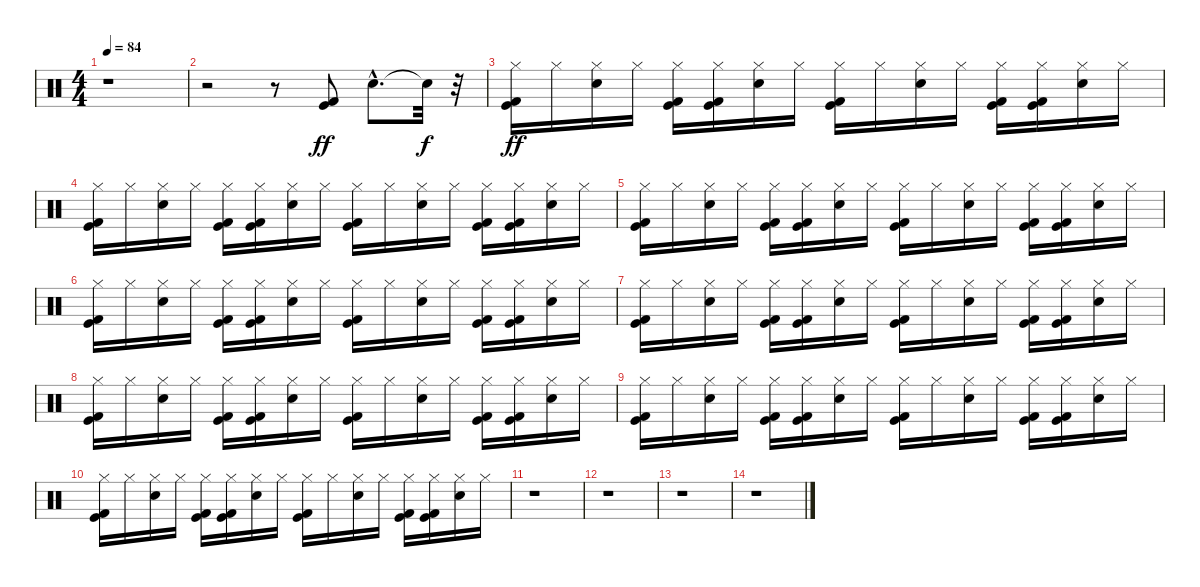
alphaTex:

\track "" {instrument percussion}
\staff {score}
\articulation defaults
\ts (4 4)
\tempo 84
\clef neutral
\ks c
r.1{dy ff} |
r.2 r.8 ("Kick (hit)" "Kick (hit) 2").8 "Snare (hit) 2"{hac}.8{d} "Snare (hit)"{t}.32{dy f} r.32 |
("Kick (hit)" "Kick (hit) 2" "Hi-Hat (closed)").16{dy ff} "Hi-Hat (closed)".16 ("Snare (hit) 2" "Hi-Hat (closed)").16 "Hi-Hat (closed)".16 ("Kick (hit)" "Kick (hit) 2" "Hi-Hat (closed)").16 ("Kick (hit)" "Kick (hit) 2" "Hi-Hat (closed)").16 ("Snare (hit) 2" "Hi-Hat (closed)").16 "Hi-Hat (closed)".16 ("Kick (hit)" "Kick (hit) 2" "Hi-Hat (closed)").16 "Hi-Hat (closed)".16 ("Snare (hit) 2" "Hi-Hat (closed)").16 "Hi-Hat (closed)".16 ("Kick (hit)" "Kick (hit) 2" "Hi-Hat (closed)").16 ("Kick (hit)" "Kick (hit) 2" "Hi-Hat (closed)").16 ("Snare (hit) 2" "Hi-Hat (closed)").16 "Hi-Hat (closed)".16 |
("Kick (hit)" "Kick (hit) 2" "Hi-Hat (closed)").16 "Hi-Hat (closed)".16 ("Snare (hit) 2" "Hi-Hat (closed)").16 "Hi-Hat (closed)".16 ("Kick (hit)" "Kick (hit) 2" "Hi-Hat (closed)").16 ("Kick (hit)" "Kick (hit) 2" "Hi-Hat (closed)").16 ("Snare (hit) 2" "Hi-Hat (closed)").16 "Hi-Hat (closed)".16 ("Kick (hit)" "Kick (hit) 2" "Hi-Hat (closed)").16 "Hi-Hat (closed)".16 ("Snare (hit) 2" "Hi-Hat (closed)").16 "Hi-Hat (closed)".16 ("Kick (hit)" "Kick (hit) 2" "Hi-Hat (closed)").16 ("Kick (hit)" "Kick (hit) 2" "Hi-Hat (closed)").16 ("Snare (hit) 2" "Hi-Hat (closed)").16 "Hi-Hat (closed)".16 |
("Kick (hit)" "Kick (hit) 2" "Hi-Hat (closed)").16 "Hi-Hat (closed)".16 ("Snare (hit) 2" "Hi-Hat (closed)").16 "Hi-Hat (closed)".16 ("Kick (hit)" "Kick (hit) 2" "Hi-Hat (closed)").16 ("Kick (hit)" "Kick (hit) 2" "Hi-Hat (closed)").16 ("Snare (hit) 2" "Hi-Hat (closed)").16 "Hi-Hat (closed)".16 ("Kick (hit)" "Kick (hit) 2" "Hi-Hat (closed)").16 "Hi-Hat (closed)".16 ("Snare (hit) 2" "Hi-Hat (closed)").16 "Hi-Hat (closed)".16 ("Kick (hit)" "Kick (hit) 2" "Hi-Hat (closed)").16 ("Kick (hit)" "Kick (hit) 2" "Hi-Hat (closed)").16 ("Snare (hit) 2" "Hi-Hat (closed)").16 "Hi-Hat (closed)".16 |
("Kick (hit)" "Kick (hit) 2" "Hi-Hat (closed)").16 "Hi-Hat (closed)".16 ("Snare (hit) 2" "Hi-Hat (closed)").16 "Hi-Hat (closed)".16 ("Kick (hit)" "Kick (hit) 2" "Hi-Hat (closed)").16 ("Kick (hit)" "Kick (hit) 2" "Hi-Hat (closed)").16 ("Snare (hit) 2" "Hi-Hat (closed)").16 "Hi-Hat (closed)".16 ("Kick (hit)" "Kick (hit) 2" "Hi-Hat (closed)").16 "Hi-Hat (closed)".16 ("Snare (hit) 2" "Hi-Hat (closed)").16 "Hi-Hat (closed)".16 ("Kick (hit)" "Kick (hit) 2" "Hi-Hat (closed)").16 ("Kick (hit)" "Kick (hit) 2" "Hi-Hat (closed)").16 ("Snare (hit) 2" "Hi-Hat (closed)").16 "Hi-Hat (closed)".16 |
("Kick (hit)" "Kick (hit) 2" "Hi-Hat (closed)").16 "Hi-Hat (closed)".16 ("Snare (hit) 2" "Hi-Hat (closed)").16 "Hi-Hat (closed)".16 ("Kick (hit)" "Kick (hit) 2" "Hi-Hat (closed)").16 ("Kick (hit)" "Kick (hit) 2" "Hi-Hat (closed)").16 ("Snare (hit) 2" "Hi-Hat (closed)").16 "Hi-Hat (closed)".16 ("Kick (hit)" "Kick (hit) 2" "Hi-Hat (closed)").16 "Hi-Hat (closed)".16 ("Snare (hit) 2" "Hi-Hat (closed)").16 "Hi-Hat (closed)".16 ("Kick (hit)" "Kick (hit) 2" "Hi-Hat (closed)").16 ("Kick (hit)" "Kick (hit) 2" "Hi-Hat (closed)").16 ("Snare (hit) 2" "Hi-Hat (closed)").16 "Hi-Hat (closed)".16 |
("Kick (hit)" "Kick (hit) 2" "Hi-Hat (closed)").16 "Hi-Hat (closed)".16 ("Snare (hit) 2" "Hi-Hat (closed)").16 "Hi-Hat (closed)".16 ("Kick (hit)" "Kick (hit) 2" "Hi-Hat (closed)").16 ("Kick (hit)" "Kick (hit) 2" "Hi-Hat (closed)").16 ("Snare (hit) 2" "Hi-Hat (closed)").16 "Hi-Hat (closed)".16 ("Kick (hit)" "Kick (hit) 2" "Hi-Hat (closed)").16 "Hi-Hat (closed)".16 ("Snare (hit) 2" "Hi-Hat (closed)").16 "Hi-Hat (closed)".16 ("Kick (hit)" "Kick (hit) 2" "Hi-Hat (closed)").16 ("Kick (hit)" "Kick (hit) 2" "Hi-Hat (closed)").16 ("Snare (hit) 2" "Hi-Hat (closed)").16 "Hi-Hat (closed)".16 |
("Kick (hit)" "Kick (hit) 2" "Hi-Hat (closed)").16 "Hi-Hat (closed)".16 ("Snare (hit) 2" "Hi-Hat (closed)").16 "Hi-Hat (closed)".16 ("Kick (hit)" "Kick (hit) 2" "Hi-Hat (closed)").16 ("Kick (hit)" "Kick (hit) 2" "Hi-Hat (closed)").16 ("Snare (hit) 2" "Hi-Hat (closed)").16 "Hi-Hat (closed)".16 ("Kick (hit)" "Kick (hit) 2" "Hi-Hat (closed)").16 "Hi-Hat (closed)".16 ("Snare (hit) 2" "Hi-Hat (closed)").16 "Hi-Hat (closed)".16 ("Kick (hit)" "Kick (hit) 2" "Hi-Hat (closed)").16 ("Kick (hit)" "Kick (hit) 2" "Hi-Hat (closed)").16 ("Snare (hit) 2" "Hi-Hat (closed)").16 "Hi-Hat (closed)".16 |
("Kick (hit)" "Kick (hit) 2" "Hi-Hat (closed)").16 "Hi-Hat (closed)".16 ("Snare (hit) 2" "Hi-Hat (closed)").16 "Hi-Hat (closed)".16 ("Kick (hit)" "Kick (hit) 2" "Hi-Hat (closed)").16 ("Kick (hit)" "Kick (hit) 2" "Hi-Hat (closed)").16 ("Snare (hit) 2" "Hi-Hat (closed)").16 "Hi-Hat (closed)".16 ("Kick (hit)" "Kick (hit) 2" "Hi-Hat (closed)").16 "Hi-Hat (closed)".16 ("Snare (hit) 2" "Hi-Hat (closed)").16 "Hi-Hat (closed)".16 ("Kick (hit)" "Kick (hit) 2" "Hi-Hat (closed)").16 ("Kick (hit)" "Kick (hit) 2" "Hi-Hat (closed)").16 ("Snare (hit) 2" "Hi-Hat (closed)").16 "Hi-Hat (closed)".16 |
r.1 |
r.1 |
r.1 |
r.1
